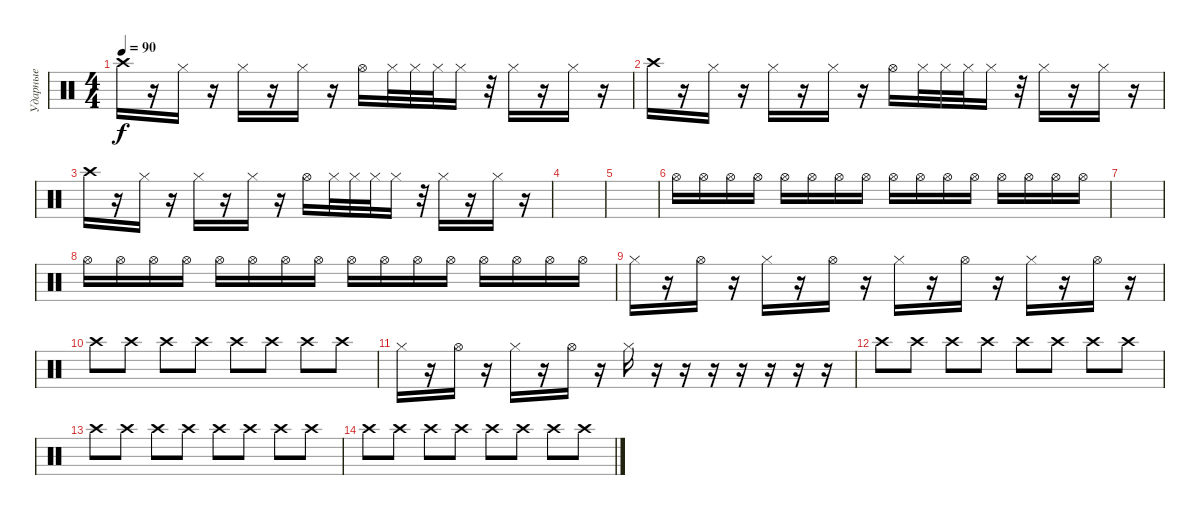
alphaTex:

\track ("Ударные" "Ударные") {instrument percussion}
\staff {score}
\articulation defaults
\ts (4 4)
\tempo 90
\clef neutral
\ks c "Crash high (hit)".16{dy f}
r.16 "Hi-Hat (closed)".16 r.16 "Hi-Hat (closed)".16 r.16 "Hi-Hat (closed)".16 r.16 "Hi-Hat (open)".16 "Hi-Hat (closed)".32 "Hi-Hat (closed)".32 "Hi-Hat (closed)".32 "Hi-Hat (closed)".16 r.32 "Hi-Hat (closed)".16 r.16 "Hi-Hat (closed)".16 r.16 |
"Crash high (hit)".16 r.16 "Hi-Hat (closed)".16 r.16 "Hi-Hat (closed)".16 r.16 "Hi-Hat (closed)".16 r.16 "Hi-Hat (open)".16 "Hi-Hat (closed)".32 "Hi-Hat (closed)".32 "Hi-Hat (closed)".32 "Hi-Hat (closed)".16 r.32 "Hi-Hat (closed)".16 r.16 "Hi-Hat (closed)".16 r.16 |
"Crash high (hit)".16 r.16 "Hi-Hat (closed)".16 r.16 "Hi-Hat (closed)".16 r.16 "Hi-Hat (closed)".16 r.16 "Hi-Hat (open)".16 "Hi-Hat (closed)".32 "Hi-Hat (closed)".32 "Hi-Hat (closed)".32 "Hi-Hat (closed)".16 r.32 "Hi-Hat (closed)".16 r.16 "Hi-Hat (closed)".16 r.16 |
|
|
"Hi-Hat (open)".16 "Hi-Hat (open)".16 "Hi-Hat (open)".16 "Hi-Hat (open)".16 "Hi-Hat (open)".16 "Hi-Hat (open)".16 "Hi-Hat (open)".16 "Hi-Hat (open)".16 "Hi-Hat (open)".16 "Hi-Hat (open)".16 "Hi-Hat (open)".16 "Hi-Hat (open)".16 "Hi-Hat (open)".16 "Hi-Hat (open)".16 "Hi-Hat (open)".16 "Hi-Hat (open)".16 |
|
"Hi-Hat (open)".16 "Hi-Hat (open)".16 "Hi-Hat (open)".16 "Hi-Hat (open)".16 "Hi-Hat (open)".16 "Hi-Hat (open)".16 "Hi-Hat (open)".16 "Hi-Hat (open)".16 "Hi-Hat (open)".16 "Hi-Hat (open)".16 "Hi-Hat (open)".16 "Hi-Hat (open)".16 "Hi-Hat (open)".16 "Hi-Hat (open)".16 "Hi-Hat (open)".16 "Hi-Hat (open)".16 |
"Hi-Hat (closed)".16 r.16 "Hi-Hat (open)".16 r.16 "Hi-Hat (closed)".16 r.16 "Hi-Hat (open)".16 r.16 "Hi-Hat (closed)".16 r.16 "Hi-Hat (open)".16 r.16 "Hi-Hat (closed)".16 r.16 "Hi-Hat (open)".16 r.16 |
"Crash high (hit)".8 "Crash high (hit)".8 "Crash high (hit)".8 "Crash high (hit)".8 "Crash high (hit)".8 "Crash high (hit)".8 "Crash high (hit)".8 "Crash high (hit)".8 |
"Hi-Hat (closed)".16 r.16 "Hi-Hat (open)".16 r.16 "Hi-Hat (closed)".16 r.16 "Hi-Hat (open)".16 r.16 "Hi-Hat (closed)".16 r.16 r.16 r.16 r.16 r.16 r.16 r.16 |
"Crash high (hit)".8 "Crash high (hit)".8 "Crash high (hit)".8 "Crash high (hit)".8 "Crash high (hit)".8 "Crash high (hit)".8 "Crash high (hit)".8 "Crash high (hit)".8 |
"Crash high (hit)".8 "Crash high (hit)".8 "Crash high (hit)".8 "Crash high (hit)".8 "Crash high (hit)".8 "Crash high (hit)".8 "Crash high (hit)".8 "Crash high (hit)".8 |
"Crash high (hit)".8 "Crash high (hit)".8 "Crash high (hit)".8 "Crash high (hit)".8 "Crash high (hit)".8 "Crash high (hit)".8 "Crash high (hit)".8 "Crash high (hit)".8
